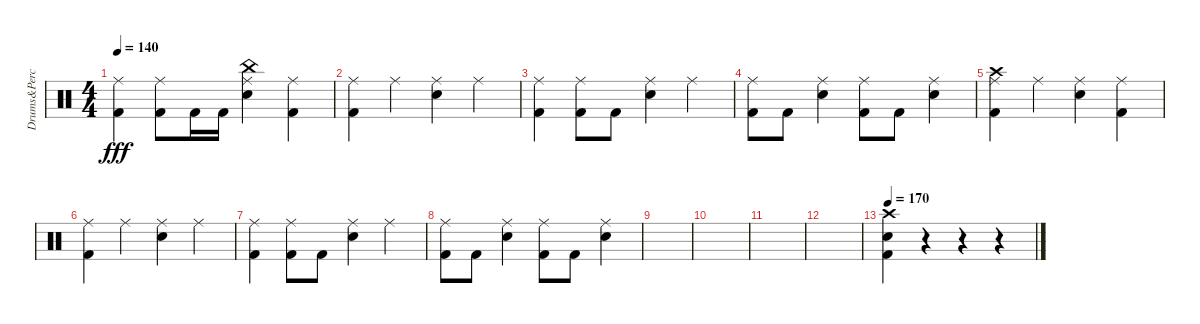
\track ("Drums&Percusion" "Drums&Perc") {instrument percussion}
\staff {score}
\articulation defaults
\ts (4 4)
\tempo 140
\clef neutral
\ks c
("Ride (middle)" "Kick (hit) 2").4{dy fff} ("Ride (middle)" "Kick (hit) 2").8 "Kick (hit) 2".16 "Kick (hit) 2".16 ("Ride (middle)" "China (hit)" "Snare (hit) 2").4 ("Ride (middle)" "Kick (hit) 2").4 |
("Ride (middle)" "Kick (hit) 2").4 "Ride (middle)".4 ("Ride (middle)" "Snare (hit) 2").4 "Ride (middle)".4 |
("Ride (middle)" "Kick (hit) 2").4 ("Ride (middle)" "Kick (hit) 2").8 "Kick (hit) 2".8 ("Ride (middle)" "Snare (hit) 2").4 "Ride (middle)".4 |
("Ride (middle)" "Kick (hit) 2").8 "Kick (hit) 2".8 ("Ride (middle)" "Snare (hit) 2").4 ("Ride (middle)" "Kick (hit) 2").8 "Kick (hit) 2".8 ("Ride (middle)" "Snare (hit) 2").4 |
("Ride (middle)" "Crash high (hit)" "Kick (hit) 2").4 "Ride (middle)".4 ("Ride (middle)" "Snare (hit) 2").4 ("Ride (middle)" "Kick (hit) 2").4 |
("Ride (middle)" "Kick (hit) 2").4 "Ride (middle)".4 ("Ride (middle)" "Snare (hit) 2").4 "Ride (middle)".4 |
("Ride (middle)" "Kick (hit) 2").4 ("Ride (middle)" "Kick (hit) 2").8 "Kick (hit) 2".8 ("Ride (middle)" "Snare (hit) 2").4 "Ride (middle)".4 |
("Ride (middle)" "Kick (hit) 2").8 "Kick (hit) 2".8 ("Ride (middle)" "Snare (hit) 2").4 ("Ride (middle)" "Kick (hit) 2").8 "Kick (hit) 2".8 ("Ride (middle)" "Snare (hit) 2").4 |
|
|
|
|
\tempo 170
("Crash high (hit)" "Snare (hit) 2" "Kick (hit) 2").4 r.4 r.4 r.4
